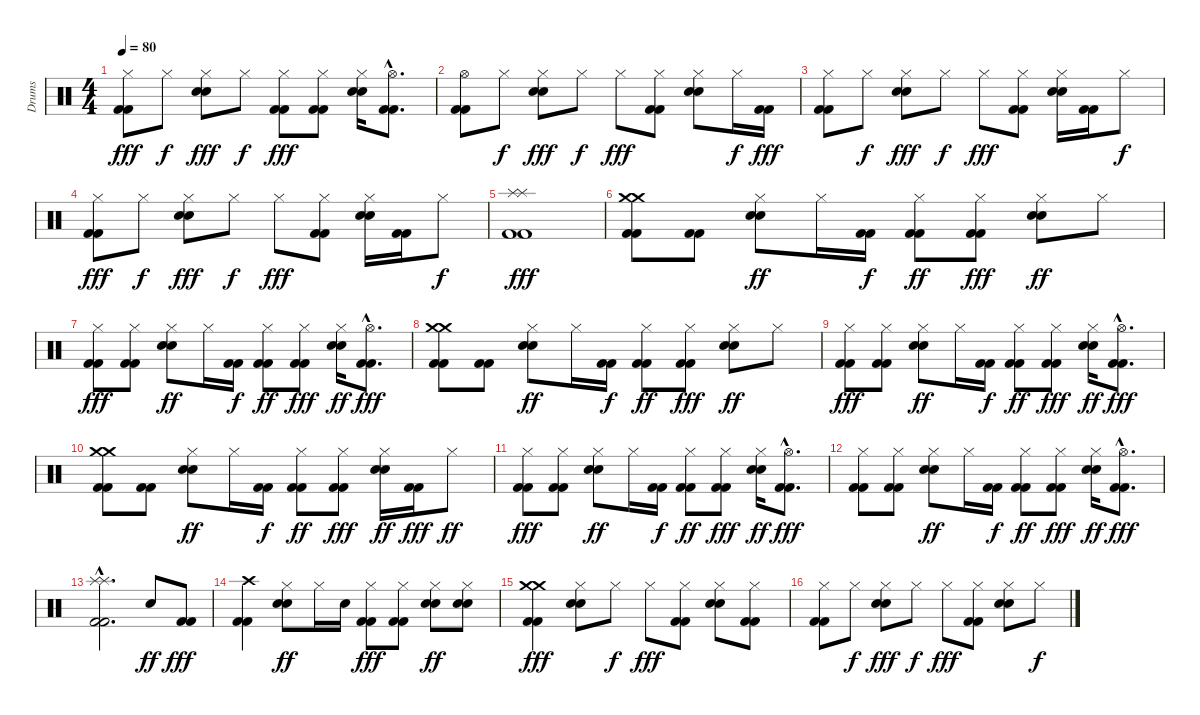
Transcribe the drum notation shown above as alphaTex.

\track ("Drums" "Drums") {instrument percussion}
\staff {score}
\articulation defaults
\ts (4 4)
\tempo 80
\clef neutral
\ks c
("Hi-Hat (closed)" "Kick (hit) 2" "Kick (hit) 2").8{dy fff} "Hi-Hat (closed)".8{dy f} ("Hi-Hat (closed)" "Electric Snare (hit)" "Electric Snare (hit)").8{dy fff} "Hi-Hat (closed)".8{dy f} ("Hi-Hat (closed)" "Kick (hit) 2" "Kick (hit) 2").8{dy fff} ("Hi-Hat (closed)" "Kick (hit) 2" "Kick (hit) 2").8 ("Hi-Hat (closed)" "Electric Snare (hit)" "Electric Snare (hit)").16 ("Hi-Hat (open)"{hac} "Kick (hit) 2"{hac} "Kick (hit) 2"{hac}).8{d} |
("Hi-Hat (open)" "Kick (hit) 2" "Kick (hit) 2").8 "Hi-Hat (closed)".8{dy f} ("Hi-Hat (closed)" "Electric Snare (hit)" "Electric Snare (hit)").8{dy fff} "Hi-Hat (closed)".8{dy f} "Hi-Hat (closed)".8{dy fff} ("Hi-Hat (closed)" "Kick (hit) 2" "Kick (hit) 2").8 ("Hi-Hat (closed)" "Electric Snare (hit)" "Electric Snare (hit)").8 "Hi-Hat (closed)".16{dy f} ("Kick (hit) 2" "Kick (hit) 2").16{dy fff} |
("Hi-Hat (closed)" "Kick (hit) 2" "Kick (hit) 2").8 "Hi-Hat (closed)".8{dy f} ("Hi-Hat (closed)" "Electric Snare (hit)" "Electric Snare (hit)").8{dy fff} "Hi-Hat (closed)".8{dy f} "Hi-Hat (closed)".8{dy fff} ("Hi-Hat (closed)" "Kick (hit) 2" "Kick (hit) 2").8 ("Hi-Hat (closed)" "Electric Snare (hit)" "Electric Snare (hit)").16 ("Kick (hit) 2" "Kick (hit) 2").16 "Hi-Hat (closed)".8{dy f} |
("Hi-Hat (closed)" "Kick (hit) 2" "Kick (hit) 2").8{dy fff} "Hi-Hat (closed)".8{dy f} ("Hi-Hat (closed)" "Electric Snare (hit)" "Electric Snare (hit)").8{dy fff} "Hi-Hat (closed)".8{dy f} "Hi-Hat (closed)".8{dy fff} ("Hi-Hat (closed)" "Kick (hit) 2" "Kick (hit) 2").8 ("Hi-Hat (closed)" "Electric Snare (hit)" "Electric Snare (hit)").16 ("Kick (hit) 2" "Kick (hit) 2").16 "Hi-Hat (closed)".8{dy f} |
("Splash (hit)" "Splash (hit)" "Kick (hit) 2" "Kick (hit) 2").1{dy fff} |
("Crash medium (hit)" "Crash medium (hit)" "Kick (hit) 2" "Kick (hit) 2").8 ("Kick (hit) 2" "Kick (hit) 2").8 ("Hi-Hat (closed)" "Electric Snare (hit)" "Electric Snare (hit)").8{dy ff} "Hi-Hat (closed)".16 ("Kick (hit) 2" "Kick (hit) 2").16{dy f} ("Hi-Hat (closed)" "Kick (hit) 2" "Kick (hit) 2").8{dy ff} ("Hi-Hat (closed)" "Kick (hit) 2" "Kick (hit) 2").8{dy fff} ("Hi-Hat (closed)" "Electric Snare (hit)" "Electric Snare (hit)").8{dy ff} "Hi-Hat (closed)".8 |
("Hi-Hat (closed)" "Kick (hit) 2" "Kick (hit) 2").8{dy fff} ("Hi-Hat (closed)" "Kick (hit) 2" "Kick (hit) 2").8 ("Hi-Hat (closed)" "Electric Snare (hit)" "Electric Snare (hit)").8{dy ff} "Hi-Hat (closed)".16 ("Kick (hit) 2" "Kick (hit) 2").16{dy f} ("Hi-Hat (closed)" "Kick (hit) 2" "Kick (hit) 2").8{dy ff} ("Hi-Hat (closed)" "Kick (hit) 2" "Kick (hit) 2").8{dy fff} ("Hi-Hat (closed)" "Electric Snare (hit)" "Electric Snare (hit)").16{dy ff} ("Hi-Hat (open)"{hac} "Kick (hit) 2"{hac} "Kick (hit) 2"{hac}).8{d dy fff} |
("Crash medium (hit)" "Crash medium (hit)" "Kick (hit) 2" "Kick (hit) 2").8 ("Kick (hit) 2" "Kick (hit) 2").8 ("Hi-Hat (closed)" "Electric Snare (hit)" "Electric Snare (hit)").8{dy ff} "Hi-Hat (closed)".16 ("Kick (hit) 2" "Kick (hit) 2").16{dy f} ("Hi-Hat (closed)" "Kick (hit) 2" "Kick (hit) 2").8{dy ff} ("Hi-Hat (closed)" "Kick (hit) 2" "Kick (hit) 2").8{dy fff} ("Hi-Hat (closed)" "Electric Snare (hit)" "Electric Snare (hit)").8{dy ff} "Hi-Hat (closed)".8 |
("Hi-Hat (closed)" "Kick (hit) 2" "Kick (hit) 2").8{dy fff} ("Hi-Hat (closed)" "Kick (hit) 2" "Kick (hit) 2").8 ("Hi-Hat (closed)" "Electric Snare (hit)" "Electric Snare (hit)").8{dy ff} "Hi-Hat (closed)".16 ("Kick (hit) 2" "Kick (hit) 2").16{dy f} ("Hi-Hat (closed)" "Kick (hit) 2" "Kick (hit) 2").8{dy ff} ("Hi-Hat (closed)" "Kick (hit) 2" "Kick (hit) 2").8{dy fff} ("Hi-Hat (closed)" "Electric Snare (hit)" "Electric Snare (hit)").16{dy ff} ("Hi-Hat (open)"{hac} "Kick (hit) 2"{hac} "Kick (hit) 2"{hac}).8{d dy fff} |
("Crash medium (hit)" "Crash medium (hit)" "Kick (hit) 2" "Kick (hit) 2").8 ("Kick (hit) 2" "Kick (hit) 2").8 ("Hi-Hat (closed)" "Electric Snare (hit)" "Electric Snare (hit)").8{dy ff} "Hi-Hat (closed)".16 ("Kick (hit) 2" "Kick (hit) 2").16{dy f} ("Hi-Hat (closed)" "Kick (hit) 2" "Kick (hit) 2").8{dy ff} ("Hi-Hat (closed)" "Kick (hit) 2" "Kick (hit) 2").8{dy fff} ("Hi-Hat (closed)" "Electric Snare (hit)" "Electric Snare (hit)").16{dy ff} ("Kick (hit) 2" "Kick (hit) 2").16{dy fff} "Hi-Hat (closed)".8{dy ff} |
("Hi-Hat (closed)" "Kick (hit) 2" "Kick (hit) 2").8{dy fff} ("Hi-Hat (closed)" "Kick (hit) 2" "Kick (hit) 2").8 ("Hi-Hat (closed)" "Electric Snare (hit)" "Electric Snare (hit)").8{dy ff} "Hi-Hat (closed)".16 ("Kick (hit) 2" "Kick (hit) 2").16{dy f} ("Hi-Hat (closed)" "Kick (hit) 2" "Kick (hit) 2").8{dy ff} ("Hi-Hat (closed)" "Kick (hit) 2" "Kick (hit) 2").8{dy fff} ("Hi-Hat (closed)" "Electric Snare (hit)" "Electric Snare (hit)").16{dy ff} ("Hi-Hat (open)"{hac} "Kick (hit) 2"{hac} "Kick (hit) 2"{hac}).8{d dy fff} |
("Hi-Hat (closed)" "Kick (hit) 2" "Kick (hit) 2").8 ("Hi-Hat (closed)" "Kick (hit) 2" "Kick (hit) 2").8 ("Hi-Hat (closed)" "Electric Snare (hit)" "Electric Snare (hit)").8{dy ff} "Hi-Hat (closed)".16 ("Kick (hit) 2" "Kick (hit) 2").16{dy f} ("Hi-Hat (closed)" "Kick (hit) 2" "Kick (hit) 2").8{dy ff} ("Hi-Hat (closed)" "Kick (hit) 2" "Kick (hit) 2").8{dy fff} ("Hi-Hat (closed)" "Electric Snare (hit)" "Electric Snare (hit)").16{dy ff} ("Hi-Hat (open)"{hac} "Kick (hit) 2"{hac} "Kick (hit) 2"{hac}).8{d dy fff} |
("Splash (hit)"{hac} "Splash (hit)"{hac} "Kick (hit) 2"{hac} "Kick (hit) 2"{hac}).2{d} "Electric Snare (hit)".8{dy ff} ("Kick (hit) 2" "Kick (hit) 2").8{dy fff} |
("Crash high (hit)" "Kick (hit) 2" "Kick (hit) 2").4 ("Hi-Hat (closed)" "Electric Snare (hit)" "Electric Snare (hit)").8{dy ff} "Hi-Hat (closed)".16 "Electric Snare (hit)".16 ("Hi-Hat (closed)" "Kick (hit) 2" "Kick (hit) 2").8{dy fff} ("Hi-Hat (closed)" "Kick (hit) 2" "Kick (hit) 2").8 ("Hi-Hat (closed)" "Electric Snare (hit)" "Electric Snare (hit)").8{dy ff} ("Hi-Hat (closed)" "Electric Snare (hit)" "Electric Snare (hit)").8 |
("Crash medium (hit)" "Crash medium (hit)" "Kick (hit) 2" "Kick (hit) 2").4{dy fff} ("Hi-Hat (closed)" "Electric Snare (hit)" "Electric Snare (hit)").8 "Hi-Hat (closed)".8{dy f} "Hi-Hat (closed)".8{dy fff} ("Hi-Hat (closed)" "Kick (hit) 2" "Kick (hit) 2").8 ("Hi-Hat (closed)" "Electric Snare (hit)" "Electric Snare (hit)").8 ("Hi-Hat (closed)" "Kick (hit) 2" "Kick (hit) 2").8 |
("Hi-Hat (closed)" "Kick (hit) 2" "Kick (hit) 2").8 "Hi-Hat (closed)".8{dy f} ("Hi-Hat (closed)" "Electric Snare (hit)" "Electric Snare (hit)").8{dy fff} "Hi-Hat (closed)".8{dy f} "Hi-Hat (closed)".8{dy fff} ("Hi-Hat (closed)" "Kick (hit) 2" "Kick (hit) 2").8 ("Hi-Hat (closed)" "Electric Snare (hit)" "Electric Snare (hit)").8 "Hi-Hat (closed)".8{dy f}
